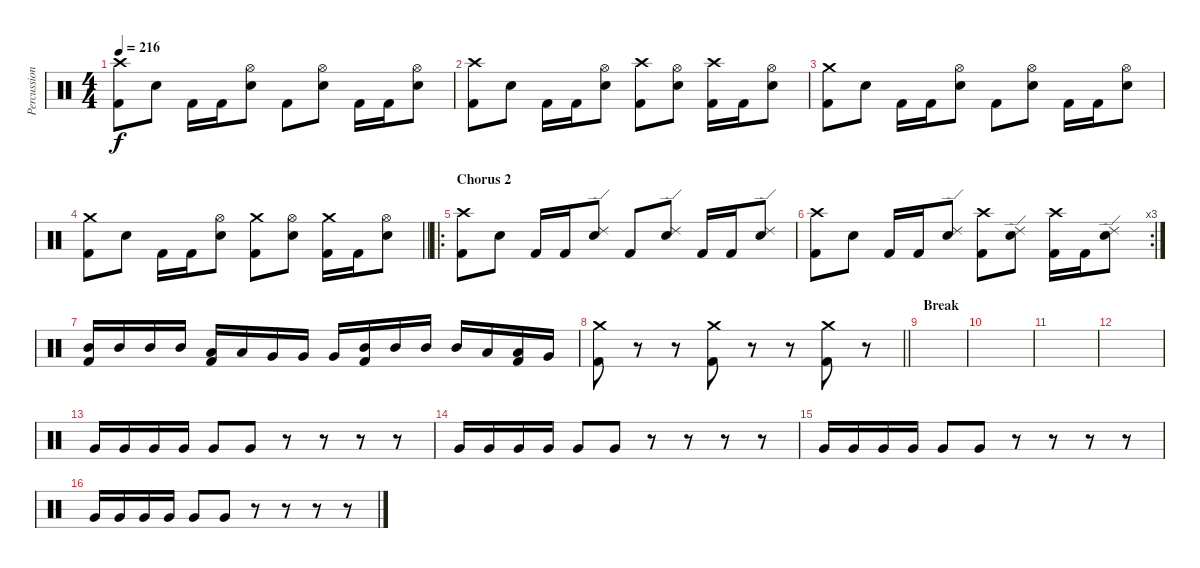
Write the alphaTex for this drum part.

\track ("Percussions" "Percussion") {instrument percussion}
\staff {score}
\articulation defaults
\ts (4 4)
\tempo 216
\clef neutral
\ks c
("Crash high (hit)" "Kick (hit) 2").8{dy f} "Electric Snare (hit)".8 "Kick (hit) 2".16 "Kick (hit) 2".16 ("Hi-Hat (open)" "Electric Snare (hit)").8 "Kick (hit) 2".8 ("Hi-Hat (open)" "Electric Snare (hit)").8 "Kick (hit) 2".16 "Kick (hit) 2".16 ("Hi-Hat (open)" "Electric Snare (hit)").8 |
("Crash high (hit)" "Kick (hit) 2").8 "Electric Snare (hit)".8 "Kick (hit) 2".16 "Kick (hit) 2".16 ("Hi-Hat (open)" "Electric Snare (hit)").8 ("Crash high (hit)" "Kick (hit) 2").8 ("Hi-Hat (open)" "Electric Snare (hit)").8 ("Crash high (hit)" "Kick (hit) 2").16 "Kick (hit) 2".16 ("Hi-Hat (open)" "Electric Snare (hit)").8 |
("Crash medium (hit)" "Kick (hit) 2").8 "Electric Snare (hit)".8 "Kick (hit) 2".16 "Kick (hit) 2".16 ("Hi-Hat (open)" "Electric Snare (hit)").8 "Kick (hit) 2".8 ("Hi-Hat (open)" "Electric Snare (hit)").8 "Kick (hit) 2".16 "Kick (hit) 2".16 ("Hi-Hat (open)" "Electric Snare (hit)").8 |
\barLineRight lightlight
("Crash medium (hit)" "Kick (hit) 2").8 "Electric Snare (hit)".8 "Kick (hit) 2".16 "Kick (hit) 2".16 ("Hi-Hat (open)" "Electric Snare (hit)").8 ("Crash medium (hit)" "Kick (hit) 2").8 ("Hi-Hat (open)" "Electric Snare (hit)").8 ("Crash medium (hit)" "Kick (hit) 2").16 "Kick (hit) 2".16 ("Hi-Hat (open)" "Electric Snare (hit)").8 |
\ro
\section ("" "Chorus 2")
("Crash high (hit)" "Kick (hit) 2").8 "Electric Snare (hit)".8 "Kick (hit) 2".16 "Kick (hit) 2".16 ("Ride (edge) 2" "Electric Snare (hit)").8 "Kick (hit) 2".8 ("Ride (edge) 2" "Electric Snare (hit)").8 "Kick (hit) 2".16 "Kick (hit) 2".16 ("Ride (edge) 2" "Electric Snare (hit)").8 |
\rc 3
("Crash high (hit)" "Kick (hit) 2").8 "Electric Snare (hit)".8 "Kick (hit) 2".16 "Kick (hit) 2".16 ("Ride (edge) 2" "Electric Snare (hit)").8 ("Crash high (hit)" "Kick (hit) 2").8 ("Ride (edge) 2" "Electric Snare (hit)").8 ("Crash high (hit)" "Kick (hit) 2").16 "Kick (hit) 2".16 ("Ride (edge) 2" "Electric Snare (hit)").8 |
("Mid Tom (hit)" "Kick (hit) 2").16 "Mid Tom (hit)".16 "Mid Tom (hit)".16 "Mid Tom (hit)".16 ("Low Tom (hit)" "Kick (hit) 2").16 "Low Tom (hit)".16 "Very Low Tom (hit)".16 "Very Low Tom (hit)".16 "Very Low Tom (hit)".16 ("Mid Tom (hit)" "Kick (hit) 2").16 "Mid Tom (hit)".16 "Mid Tom (hit)".16 "Mid Tom (hit)".16 "Low Tom (hit)".16 ("Low Tom (hit)" "Kick (hit) 2").16 "Very Low Tom (hit)".16 |
\barLineRight lightlight
("Crash medium (hit)" "Kick (hit) 2").8 r.8 r.8 ("Crash medium (hit)" "Kick (hit) 2").8 r.8 r.8 ("Crash medium (hit)" "Kick (hit) 2").8 r.8 |
\section ("" "Break")
|
|
|
|
"Very Low Tom (hit)".16 "Very Low Tom (hit)".16 "Very Low Tom (hit)".16 "Very Low Tom (hit)".16 "Very Low Tom (hit)".8 "Very Low Tom (hit)".8 r.8 r.8 r.8 r.8 |
"Very Low Tom (hit)".16 "Very Low Tom (hit)".16 "Very Low Tom (hit)".16 "Very Low Tom (hit)".16 "Very Low Tom (hit)".8 "Very Low Tom (hit)".8 r.8 r.8 r.8 r.8 |
"Very Low Tom (hit)".16 "Very Low Tom (hit)".16 "Very Low Tom (hit)".16 "Very Low Tom (hit)".16 "Very Low Tom (hit)".8 "Very Low Tom (hit)".8 r.8 r.8 r.8 r.8 |
"Very Low Tom (hit)".16 "Very Low Tom (hit)".16 "Very Low Tom (hit)".16 "Very Low Tom (hit)".16 "Very Low Tom (hit)".8 "Very Low Tom (hit)".8 r.8 r.8 r.8 r.8
